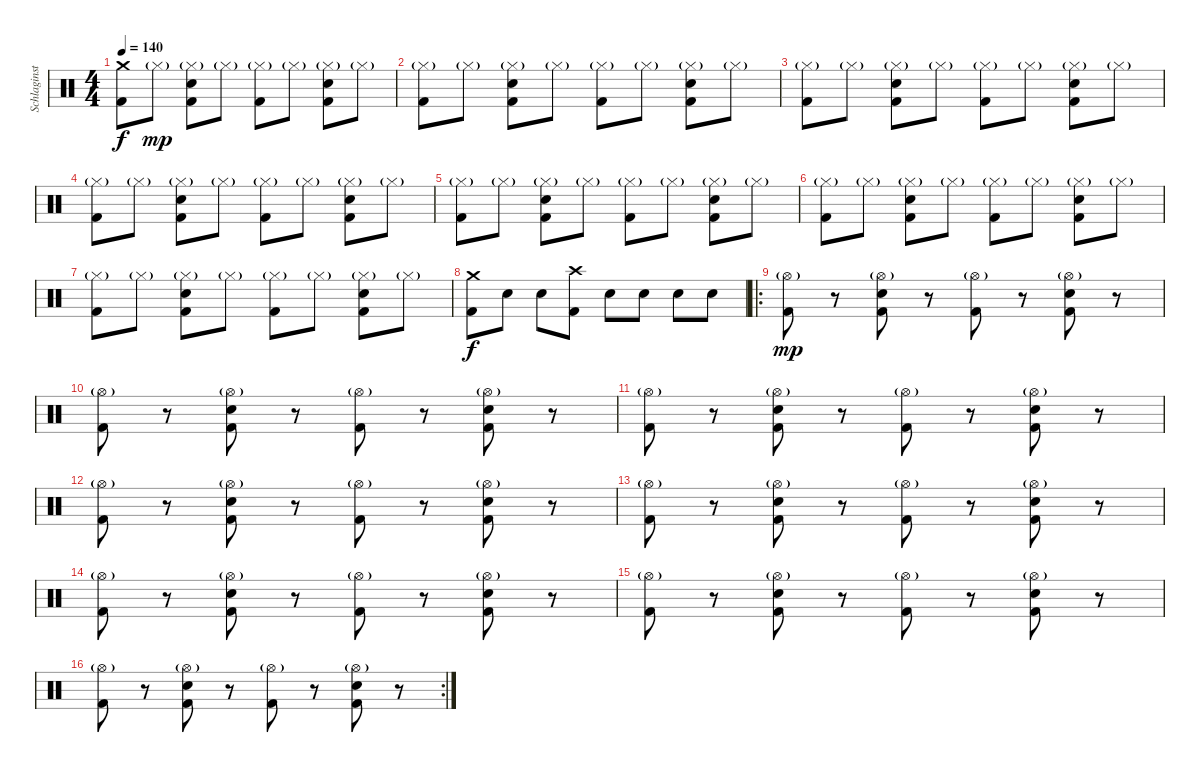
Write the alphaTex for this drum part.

\track ("Schlaginstrumente - Auswahl" "Schlaginst") {instrument percussion}
\staff {score}
\articulation defaults
\ts (4 4)
\tempo 140
\clef neutral
\ks c
("Crash medium (hit)" "Kick (hit) 2").8{dy f} "Hi-Hat (closed)"{g}.8{dy mp} ("Hi-Hat (closed)"{g} "Electric Snare (hit)" "Kick (hit) 2").8 "Hi-Hat (closed)"{g}.8 ("Hi-Hat (closed)"{g} "Kick (hit) 2").8 "Hi-Hat (closed)"{g}.8 ("Hi-Hat (closed)"{g} "Electric Snare (hit)" "Kick (hit) 2").8 "Hi-Hat (closed)"{g}.8 |
("Hi-Hat (closed)"{g} "Kick (hit) 2").8 "Hi-Hat (closed)"{g}.8 ("Hi-Hat (closed)"{g} "Electric Snare (hit)" "Kick (hit) 2").8 "Hi-Hat (closed)"{g}.8 ("Hi-Hat (closed)"{g} "Kick (hit) 2").8 "Hi-Hat (closed)"{g}.8 ("Hi-Hat (closed)"{g} "Electric Snare (hit)" "Kick (hit) 2").8 "Hi-Hat (closed)"{g}.8 |
("Hi-Hat (closed)"{g} "Kick (hit) 2").8 "Hi-Hat (closed)"{g}.8 ("Hi-Hat (closed)"{g} "Electric Snare (hit)" "Kick (hit) 2").8 "Hi-Hat (closed)"{g}.8 ("Hi-Hat (closed)"{g} "Kick (hit) 2").8 "Hi-Hat (closed)"{g}.8 ("Hi-Hat (closed)"{g} "Electric Snare (hit)" "Kick (hit) 2").8 "Hi-Hat (closed)"{g}.8 |
("Hi-Hat (closed)"{g} "Kick (hit) 2").8 "Hi-Hat (closed)"{g}.8 ("Hi-Hat (closed)"{g} "Electric Snare (hit)" "Kick (hit) 2").8 "Hi-Hat (closed)"{g}.8 ("Hi-Hat (closed)"{g} "Kick (hit) 2").8 "Hi-Hat (closed)"{g}.8 ("Hi-Hat (closed)"{g} "Electric Snare (hit)" "Kick (hit) 2").8 "Hi-Hat (closed)"{g}.8 |
("Hi-Hat (closed)"{g} "Kick (hit) 2").8 "Hi-Hat (closed)"{g}.8 ("Hi-Hat (closed)"{g} "Electric Snare (hit)" "Kick (hit) 2").8 "Hi-Hat (closed)"{g}.8 ("Hi-Hat (closed)"{g} "Kick (hit) 2").8 "Hi-Hat (closed)"{g}.8 ("Hi-Hat (closed)"{g} "Electric Snare (hit)" "Kick (hit) 2").8 "Hi-Hat (closed)"{g}.8 |
("Hi-Hat (closed)"{g} "Kick (hit) 2").8 "Hi-Hat (closed)"{g}.8 ("Hi-Hat (closed)"{g} "Electric Snare (hit)" "Kick (hit) 2").8 "Hi-Hat (closed)"{g}.8 ("Hi-Hat (closed)"{g} "Kick (hit) 2").8 "Hi-Hat (closed)"{g}.8 ("Hi-Hat (closed)"{g} "Electric Snare (hit)" "Kick (hit) 2").8 "Hi-Hat (closed)"{g}.8 |
("Hi-Hat (closed)"{g} "Kick (hit) 2").8 "Hi-Hat (closed)"{g}.8 ("Hi-Hat (closed)"{g} "Electric Snare (hit)" "Kick (hit) 2").8 "Hi-Hat (closed)"{g}.8 ("Hi-Hat (closed)"{g} "Kick (hit) 2").8 "Hi-Hat (closed)"{g}.8 ("Hi-Hat (closed)"{g} "Electric Snare (hit)" "Kick (hit) 2").8 "Hi-Hat (closed)"{g}.8 |
("Crash medium (hit)" "Kick (hit) 2").8{dy f} "Electric Snare (hit)".8 "Electric Snare (hit)".8 ("Crash high (hit)" "Kick (hit) 2").8 "Electric Snare (hit)".8 "Electric Snare (hit)".8 "Electric Snare (hit)".8 "Electric Snare (hit)".8 |
\ro
("Hi-Hat (open)"{g} "Kick (hit) 2").8{dy mp} r.8 ("Hi-Hat (open)"{g} "Electric Snare (hit)" "Kick (hit) 2").8 r.8 ("Hi-Hat (open)"{g} "Kick (hit) 2").8 r.8 ("Hi-Hat (open)"{g} "Electric Snare (hit)" "Kick (hit) 2").8 r.8 |
("Hi-Hat (open)"{g} "Kick (hit) 2").8 r.8 ("Hi-Hat (open)"{g} "Electric Snare (hit)" "Kick (hit) 2").8 r.8 ("Hi-Hat (open)"{g} "Kick (hit) 2").8 r.8 ("Hi-Hat (open)"{g} "Electric Snare (hit)" "Kick (hit) 2").8 r.8 |
("Hi-Hat (open)"{g} "Kick (hit) 2").8 r.8 ("Hi-Hat (open)"{g} "Electric Snare (hit)" "Kick (hit) 2").8 r.8 ("Hi-Hat (open)"{g} "Kick (hit) 2").8 r.8 ("Hi-Hat (open)"{g} "Electric Snare (hit)" "Kick (hit) 2").8 r.8 |
("Hi-Hat (open)"{g} "Kick (hit) 2").8 r.8 ("Hi-Hat (open)"{g} "Electric Snare (hit)" "Kick (hit) 2").8 r.8 ("Hi-Hat (open)"{g} "Kick (hit) 2").8 r.8 ("Hi-Hat (open)"{g} "Electric Snare (hit)" "Kick (hit) 2").8 r.8 |
("Hi-Hat (open)"{g} "Kick (hit) 2").8 r.8 ("Hi-Hat (open)"{g} "Electric Snare (hit)" "Kick (hit) 2").8 r.8 ("Hi-Hat (open)"{g} "Kick (hit) 2").8 r.8 ("Hi-Hat (open)"{g} "Electric Snare (hit)" "Kick (hit) 2").8 r.8 |
("Hi-Hat (open)"{g} "Kick (hit) 2").8 r.8 ("Hi-Hat (open)"{g} "Electric Snare (hit)" "Kick (hit) 2").8 r.8 ("Hi-Hat (open)"{g} "Kick (hit) 2").8 r.8 ("Hi-Hat (open)"{g} "Electric Snare (hit)" "Kick (hit) 2").8 r.8 |
("Hi-Hat (open)"{g} "Kick (hit) 2").8 r.8 ("Hi-Hat (open)"{g} "Electric Snare (hit)" "Kick (hit) 2").8 r.8 ("Hi-Hat (open)"{g} "Kick (hit) 2").8 r.8 ("Hi-Hat (open)"{g} "Electric Snare (hit)" "Kick (hit) 2").8 r.8 |
\rc 2
("Hi-Hat (open)"{g} "Kick (hit) 2").8 r.8 ("Hi-Hat (open)"{g} "Electric Snare (hit)" "Kick (hit) 2").8 r.8 ("Hi-Hat (open)"{g} "Kick (hit) 2").8 r.8 ("Hi-Hat (open)"{g} "Electric Snare (hit)" "Kick (hit) 2").8 r.8
